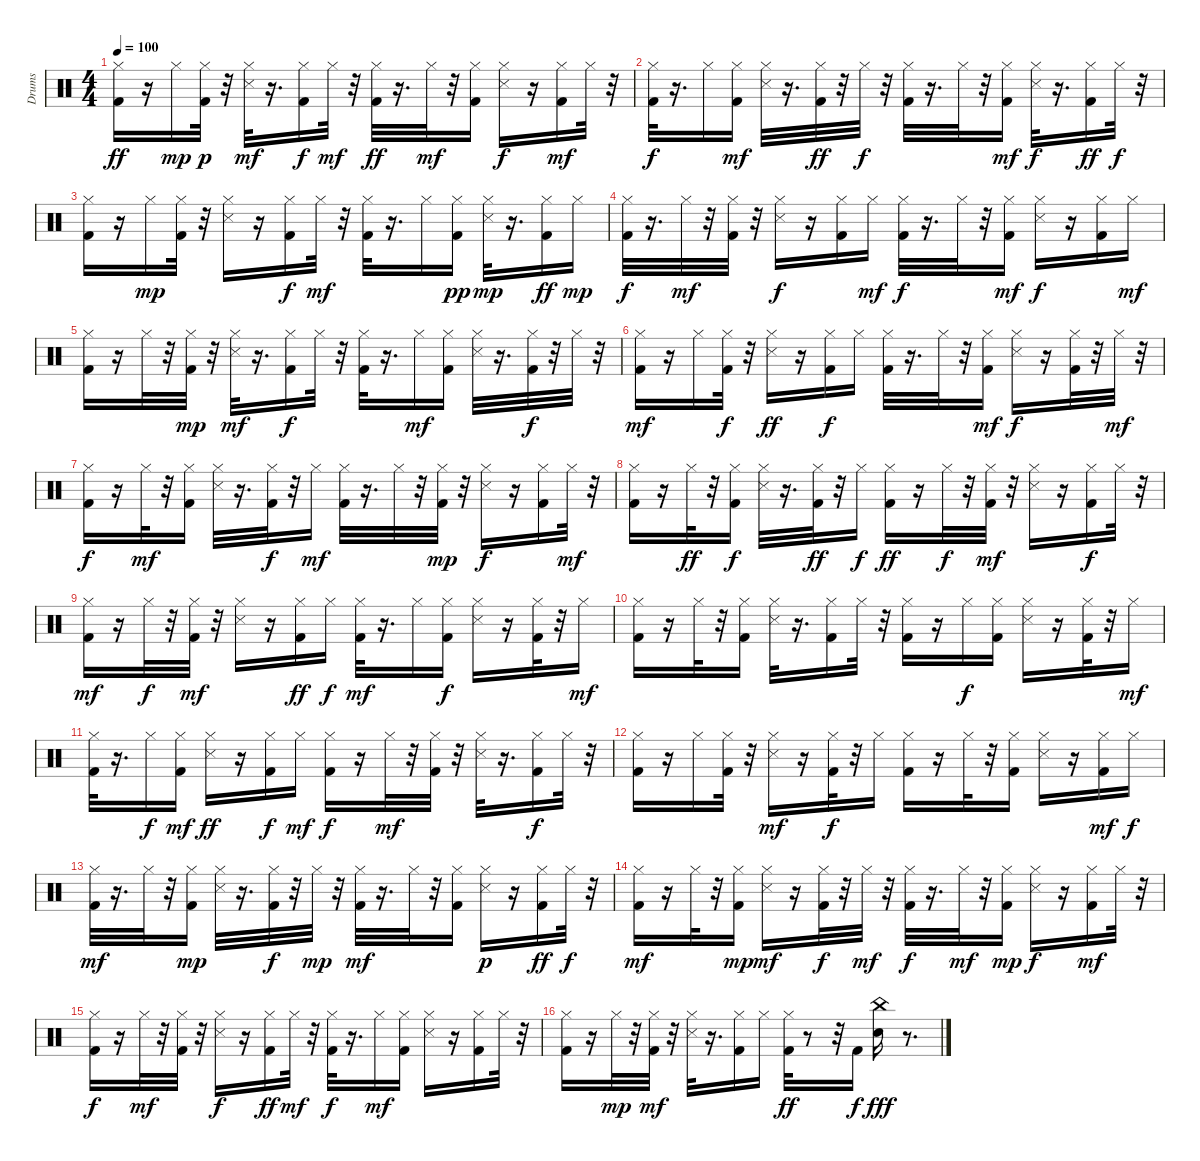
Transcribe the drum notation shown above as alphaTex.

\track ("Drums" "Drums") {instrument percussion}
\staff {score}
\articulation defaults
\ts (4 4)
\tempo 100
\clef neutral
\ks c
("Hi-Hat (closed)" "Kick (hit) 2").16{dy ff} r.16 "Hi-Hat (closed)".16{dy mp} ("Kick (hit) 2" "Hi-Hat (closed)").32{dy p} r.32 ("Hi-Hat (closed)" "Snare (side stick) 3").32{dy mf} r.16{d} ("Kick (hit) 2" "Hi-Hat (closed)").16{dy f} "Hi-Hat (closed)".32{dy mf} r.32 ("Hi-Hat (closed)" "Kick (hit) 2").32{dy ff} r.16{d} "Hi-Hat (closed)".32{dy mf} r.32 ("Hi-Hat (closed)" "Kick (hit) 2").16 ("Hi-Hat (closed)" "Snare (side stick) 3").16{dy f} r.16 ("Kick (hit) 2" "Hi-Hat (closed)").16{dy mf} "Hi-Hat (closed)".32 r.32 |
("Hi-Hat (closed)" "Kick (hit) 2").32{dy f} r.16{d} "Hi-Hat (closed)".16 ("Kick (hit) 2" "Hi-Hat (closed)").16{dy mf} ("Hi-Hat (closed)" "Snare (side stick) 3").32 r.16{d} ("Hi-Hat (closed)" "Kick (hit) 2").32{dy ff} r.32 "Hi-Hat (closed)".32{dy f} r.32 ("Kick (hit) 2" "Hi-Hat (closed)").32 r.16{d} "Hi-Hat (closed)".32 r.32 ("Hi-Hat (closed)" "Kick (hit) 2").16{dy mf} ("Hi-Hat (closed)" "Snare (side stick) 3").32{dy f} r.16{d} ("Hi-Hat (closed)" "Kick (hit) 2").16{dy ff} "Hi-Hat (closed)".32{dy f} r.32 |
("Kick (hit) 2" "Hi-Hat (closed)").16 r.16 "Hi-Hat (closed)".16{dy mp} ("Kick (hit) 2" "Hi-Hat (closed)").32 r.32 ("Hi-Hat (closed)" "Snare (side stick) 3").16 r.16 ("Kick (hit) 2" "Hi-Hat (closed)").16{dy f} "Hi-Hat (closed)".32{dy mf} r.32 ("Kick (hit) 2" "Hi-Hat (closed)").32 r.16{d} "Hi-Hat (closed)".16 ("Kick (hit) 2" "Hi-Hat (closed)").16{dy pp} ("Hi-Hat (closed)" "Snare (side stick) 3").32{dy mp} r.16{d} ("Kick (hit) 2" "Hi-Hat (closed)").16{dy ff} "Hi-Hat (closed)".16{dy mp} |
("Kick (hit) 2" "Hi-Hat (closed)").32{dy f} r.16{d} "Hi-Hat (closed)".32{dy mf} r.32 ("Hi-Hat (closed)" "Kick (hit) 2").32 r.32 ("Hi-Hat (closed)" "Snare (side stick) 3").16{dy f} r.16 ("Kick (hit) 2" "Hi-Hat (closed)").16 "Hi-Hat (closed)".16{dy mf} ("Kick (hit) 2" "Hi-Hat (closed)").32{dy f} r.16{d} "Hi-Hat (closed)".32 r.32 ("Kick (hit) 2" "Hi-Hat (closed)").16{dy mf} ("Hi-Hat (closed)" "Snare (side stick) 3").16{dy f} r.16 ("Hi-Hat (closed)" "Kick (hit) 2").16 "Hi-Hat (closed)".16{dy mf} |
("Hi-Hat (closed)" "Kick (hit) 2").16 r.16 "Hi-Hat (closed)".32 r.32 ("Kick (hit) 2" "Hi-Hat (closed)").32{dy mp} r.32 ("Hi-Hat (closed)" "Snare (side stick) 3").32{dy mf} r.16{d} ("Hi-Hat (closed)" "Kick (hit) 2").16{dy f} "Hi-Hat (closed)".32 r.32 ("Hi-Hat (closed)" "Kick (hit) 2").32 r.16{d} "Hi-Hat (closed)".16{dy mf} ("Kick (hit) 2" "Hi-Hat (closed)").16 ("Hi-Hat (closed)" "Snare (side stick) 3").32 r.16{d} ("Hi-Hat (closed)" "Kick (hit) 2").32{dy f} r.32 "Hi-Hat (closed)".32 r.32 |
("Hi-Hat (closed)" "Kick (hit) 2").16{dy mf} r.16 "Hi-Hat (closed)".16 ("Kick (hit) 2" "Hi-Hat (closed)").32{dy f} r.32 ("Hi-Hat (closed)" "Snare (side stick) 3").16{dy ff} r.16 ("Kick (hit) 2" "Hi-Hat (closed)").16{dy f} "Hi-Hat (closed)".16 ("Hi-Hat (closed)" "Kick (hit) 2").32 r.16{d} "Hi-Hat (closed)".32 r.32 ("Kick (hit) 2" "Hi-Hat (closed)").16{dy mf} ("Snare (side stick) 3" "Hi-Hat (closed)").16{dy f} r.16 ("Kick (hit) 2" "Hi-Hat (closed)").32 r.32 "Hi-Hat (closed)".32{dy mf} r.32 |
("Hi-Hat (closed)" "Kick (hit) 2").16{dy f} r.16 "Hi-Hat (closed)".32{dy mf} r.32 ("Hi-Hat (closed)" "Kick (hit) 2").16 ("Hi-Hat (closed)" "Snare (side stick) 3").32 r.16{d} ("Kick (hit) 2" "Hi-Hat (closed)").32{dy f} r.32 "Hi-Hat (closed)".16{dy mf} ("Kick (hit) 2" "Hi-Hat (closed)").32 r.16{d} "Hi-Hat (closed)".32 r.32 ("Kick (hit) 2" "Hi-Hat (closed)").32{dy mp} r.32 ("Hi-Hat (closed)" "Snare (side stick) 3").16{dy f} r.16 ("Kick (hit) 2" "Hi-Hat (closed)").16 "Hi-Hat (closed)".32{dy mf} r.32 |
("Kick (hit) 2" "Hi-Hat (closed)").16 r.16 "Hi-Hat (closed)".32{dy ff} r.32 ("Hi-Hat (closed)" "Kick (hit) 2").16{dy f} ("Hi-Hat (closed)" "Snare (side stick) 3").32 r.16{d} ("Hi-Hat (closed)" "Kick (hit) 2").32{dy ff} r.32 "Hi-Hat (closed)".16{dy f} ("Kick (hit) 2" "Hi-Hat (closed)").16{dy ff} r.16 "Hi-Hat (closed)".32{dy f} r.32 ("Kick (hit) 2" "Hi-Hat (closed)").32{dy mf} r.32 ("Hi-Hat (closed)" "Snare (side stick) 3").16 r.16 ("Kick (hit) 2" "Hi-Hat (closed)").16{dy f} "Hi-Hat (closed)".32 r.32 |
("Kick (hit) 2" "Hi-Hat (closed)").16{dy mf} r.16 "Hi-Hat (closed)".32{dy f} r.32 ("Hi-Hat (closed)" "Kick (hit) 2").32{dy mf} r.32 ("Hi-Hat (closed)" "Snare (side stick) 3").16 r.16 ("Hi-Hat (closed)" "Kick (hit) 2").16{dy ff} "Hi-Hat (closed)".16{dy f} ("Hi-Hat (closed)" "Kick (hit) 2").32{dy mf} r.16{d} "Hi-Hat (closed)".16 ("Kick (hit) 2" "Hi-Hat (closed)").16{dy f} ("Hi-Hat (closed)" "Snare (side stick) 3").16 r.16 ("Kick (hit) 2" "Hi-Hat (closed)").32 r.32 "Hi-Hat (closed)".16{dy mf} |
("Hi-Hat (closed)" "Kick (hit) 2").16 r.16 "Hi-Hat (closed)".32 r.32 ("Kick (hit) 2" "Hi-Hat (closed)").16 ("Hi-Hat (closed)" "Snare (side stick) 3").32 r.16{d} ("Kick (hit) 2" "Hi-Hat (closed)").16 "Hi-Hat (closed)".32 r.32 ("Kick (hit) 2" "Hi-Hat (closed)").16 r.16 "Hi-Hat (closed)".16{dy f} ("Hi-Hat (closed)" "Kick (hit) 2").16 ("Hi-Hat (closed)" "Snare (side stick) 3").16 r.16 ("Kick (hit) 2" "Hi-Hat (closed)").32 r.32 "Hi-Hat (closed)".16{dy mf} |
("Kick (hit) 2" "Hi-Hat (closed)").32 r.16{d} "Hi-Hat (closed)".16{dy f} ("Kick (hit) 2" "Hi-Hat (closed)").16{dy mf} ("Hi-Hat (closed)" "Snare (side stick) 3").16{dy ff} r.16 ("Kick (hit) 2" "Hi-Hat (closed)").16{dy f} "Hi-Hat (closed)".16{dy mf} ("Hi-Hat (closed)" "Kick (hit) 2").16{dy f} r.16 "Hi-Hat (closed)".32{dy mf} r.32 ("Kick (hit) 2" "Hi-Hat (closed)").32 r.32 ("Hi-Hat (closed)" "Snare (side stick) 3").32 r.16{d} ("Kick (hit) 2" "Hi-Hat (closed)").16{dy f} "Hi-Hat (closed)".32 r.32 |
("Hi-Hat (closed)" "Kick (hit) 2").16 r.16 "Hi-Hat (closed)".16 ("Kick (hit) 2" "Hi-Hat (closed)").32 r.32 ("Hi-Hat (closed)" "Snare (side stick) 3").16{dy mf} r.16 ("Kick (hit) 2" "Hi-Hat (closed)").32{dy f} r.32 "Hi-Hat (closed)".16 ("Kick (hit) 2" "Hi-Hat (closed)").16 r.16 "Hi-Hat (closed)".32 r.32 ("Hi-Hat (closed)" "Kick (hit) 2").16 ("Hi-Hat (closed)" "Snare (side stick) 3").16 r.16 ("Hi-Hat (closed)" "Kick (hit) 2").16{dy mf} "Hi-Hat (closed)".16{dy f} |
("Kick (hit) 2" "Hi-Hat (closed)").32{dy mf} r.16{d} "Hi-Hat (closed)".32 r.32 ("Hi-Hat (closed)" "Kick (hit) 2").16{dy mp} ("Hi-Hat (closed)" "Snare (side stick) 3").32 r.16{d} ("Hi-Hat (closed)" "Kick (hit) 2").32{dy f} r.32 "Hi-Hat (closed)".32{dy mp} r.32 ("Kick (hit) 2" "Hi-Hat (closed)").32{dy mf} r.16{d} "Hi-Hat (closed)".32 r.32 ("Kick (hit) 2" "Hi-Hat (closed)").16 ("Hi-Hat (closed)" "Snare (side stick) 3").16{dy p} r.16 ("Hi-Hat (closed)" "Kick (hit) 2").16{dy ff} "Hi-Hat (closed)".32{dy f} r.32 |
("Hi-Hat (closed)" "Kick (hit) 2").16{dy mf} r.16 "Hi-Hat (closed)".32 r.32 ("Kick (hit) 2" "Hi-Hat (closed)").16{dy mp} ("Hi-Hat (closed)" "Snare (side stick) 3").16{dy mf} r.16 ("Kick (hit) 2" "Hi-Hat (closed)").32{dy f} r.32 "Hi-Hat (closed)".32{dy mf} r.32 ("Kick (hit) 2" "Hi-Hat (closed)").32{dy f} r.16{d} "Hi-Hat (closed)".32{dy mf} r.32 ("Kick (hit) 2" "Hi-Hat (closed)").16{dy mp} ("Hi-Hat (closed)" "Snare (side stick) 3").16{dy f} r.16 ("Hi-Hat (closed)" "Kick (hit) 2").16{dy mf} "Hi-Hat (closed)".32 r.32 |
("Hi-Hat (closed)" "Kick (hit) 2").16{dy f} r.16 "Hi-Hat (closed)".32{dy mf} r.32 ("Kick (hit) 2" "Hi-Hat (closed)").32 r.32 ("Hi-Hat (closed)" "Snare (side stick) 3").16{dy f} r.16 ("Kick (hit) 2" "Hi-Hat (closed)").16{dy ff} "Hi-Hat (closed)".32{dy mf} r.32 ("Kick (hit) 2" "Hi-Hat (closed)").32{dy f} r.16{d} "Hi-Hat (closed)".16{dy mf} ("Kick (hit) 2" "Hi-Hat (closed)").16 ("Snare (side stick) 3" "Hi-Hat (closed)").16 r.16 ("Hi-Hat (closed)" "Kick (hit) 2").16 "Hi-Hat (closed)".32 r.32 |
("Kick (hit) 2" "Hi-Hat (closed)").16 r.16 "Hi-Hat (closed)".32{dy mp} r.32 ("Kick (hit) 2" "Hi-Hat (closed)").32{dy mf} r.32 ("Hi-Hat (closed)" "Snare (side stick) 3").32 r.16{d} ("Kick (hit) 2" "Hi-Hat (closed)").16 "Hi-Hat (closed)".16 ("Kick (hit) 2" "Hi-Hat (closed)").32{dy ff} r.8 r.32 "Kick (hit) 2".16{dy f} ("China (hit)" "Snare (hit) 2").16{dy fff} r.8{d}
